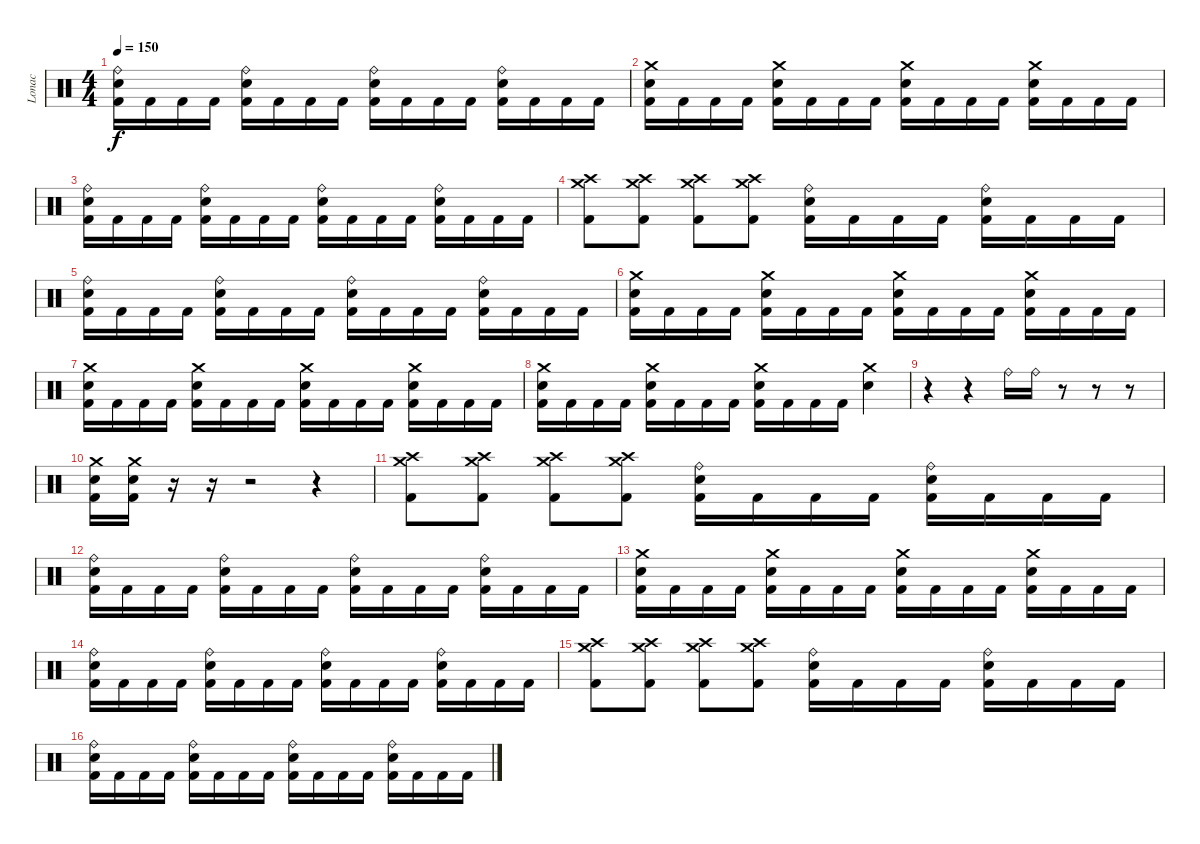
\track ("Lonac" "Lonac") {instrument percussion}
\staff {score}
\articulation defaults
\ts (4 4)
\tempo 150
\clef neutral
\ks c
("Kick (hit) 2" "Snare (hit) 2" "Ride (bell)").16{dy f} "Kick (hit) 2".16 "Kick (hit) 2".16 "Kick (hit) 2".16 ("Kick (hit) 2" "Snare (hit) 2" "Ride (bell)").16 "Kick (hit) 2".16 "Kick (hit) 2".16 "Kick (hit) 2".16 ("Kick (hit) 2" "Snare (hit) 2" "Ride (bell)").16 "Kick (hit) 2".16 "Kick (hit) 2".16 "Kick (hit) 2".16 ("Kick (hit) 2" "Snare (hit) 2" "Ride (bell)").16 "Kick (hit) 2".16 "Kick (hit) 2".16 "Kick (hit) 2".16 |
("Kick (hit) 2" "Snare (hit) 2" "Crash medium (hit)").16 "Kick (hit) 2".16 "Kick (hit) 2".16 "Kick (hit) 2".16 ("Kick (hit) 2" "Snare (hit) 2" "Crash medium (hit)").16 "Kick (hit) 2".16 "Kick (hit) 2".16 "Kick (hit) 2".16 ("Kick (hit) 2" "Snare (hit) 2" "Crash medium (hit)").16 "Kick (hit) 2".16 "Kick (hit) 2".16 "Kick (hit) 2".16 ("Kick (hit) 2" "Snare (hit) 2" "Crash medium (hit)").16 "Kick (hit) 2".16 "Kick (hit) 2".16 "Kick (hit) 2".16 |
("Kick (hit) 2" "Snare (hit) 2" "Ride (bell)").16 "Kick (hit) 2".16 "Kick (hit) 2".16 "Kick (hit) 2".16 ("Kick (hit) 2" "Snare (hit) 2" "Ride (bell)").16 "Kick (hit) 2".16 "Kick (hit) 2".16 "Kick (hit) 2".16 ("Kick (hit) 2" "Snare (hit) 2" "Ride (bell)").16 "Kick (hit) 2".16 "Kick (hit) 2".16 "Kick (hit) 2".16 ("Kick (hit) 2" "Snare (hit) 2" "Ride (bell)").16 "Kick (hit) 2".16 "Kick (hit) 2".16 "Kick (hit) 2".16 |
("Crash high (hit)" "Crash medium (hit)" "Kick (hit) 2").8 ("Crash high (hit)" "Crash medium (hit)" "Kick (hit) 2").8 ("Crash high (hit)" "Crash medium (hit)" "Kick (hit) 2").8 ("Crash high (hit)" "Crash medium (hit)" "Kick (hit) 2").8 ("Kick (hit) 2" "Snare (hit) 2" "Ride (bell)").16 "Kick (hit) 2".16 "Kick (hit) 2".16 "Kick (hit) 2".16 ("Kick (hit) 2" "Snare (hit) 2" "Ride (bell)").16 "Kick (hit) 2".16 "Kick (hit) 2".16 "Kick (hit) 2".16 |
("Kick (hit) 2" "Snare (hit) 2" "Ride (bell)").16 "Kick (hit) 2".16 "Kick (hit) 2".16 "Kick (hit) 2".16 ("Kick (hit) 2" "Snare (hit) 2" "Ride (bell)").16 "Kick (hit) 2".16 "Kick (hit) 2".16 "Kick (hit) 2".16 ("Kick (hit) 2" "Snare (hit) 2" "Ride (bell)").16 "Kick (hit) 2".16 "Kick (hit) 2".16 "Kick (hit) 2".16 ("Kick (hit) 2" "Snare (hit) 2" "Ride (bell)").16 "Kick (hit) 2".16 "Kick (hit) 2".16 "Kick (hit) 2".16 |
("Kick (hit) 2" "Snare (hit) 2" "Crash medium (hit)").16 "Kick (hit) 2".16 "Kick (hit) 2".16 "Kick (hit) 2".16 ("Kick (hit) 2" "Snare (hit) 2" "Crash medium (hit)").16 "Kick (hit) 2".16 "Kick (hit) 2".16 "Kick (hit) 2".16 ("Kick (hit) 2" "Snare (hit) 2" "Crash medium (hit)").16 "Kick (hit) 2".16 "Kick (hit) 2".16 "Kick (hit) 2".16 ("Kick (hit) 2" "Snare (hit) 2" "Crash medium (hit)").16 "Kick (hit) 2".16 "Kick (hit) 2".16 "Kick (hit) 2".16 |
("Kick (hit) 2" "Snare (hit) 2" "Crash medium (hit)").16 "Kick (hit) 2".16 "Kick (hit) 2".16 "Kick (hit) 2".16 ("Kick (hit) 2" "Snare (hit) 2" "Crash medium (hit)").16 "Kick (hit) 2".16 "Kick (hit) 2".16 "Kick (hit) 2".16 ("Kick (hit) 2" "Snare (hit) 2" "Crash medium (hit)").16 "Kick (hit) 2".16 "Kick (hit) 2".16 "Kick (hit) 2".16 ("Kick (hit) 2" "Snare (hit) 2" "Crash medium (hit)").16 "Kick (hit) 2".16 "Kick (hit) 2".16 "Kick (hit) 2".16 |
("Kick (hit) 2" "Snare (hit) 2" "Crash medium (hit)").16 "Kick (hit) 2".16 "Kick (hit) 2".16 "Kick (hit) 2".16 ("Kick (hit) 2" "Snare (hit) 2" "Crash medium (hit)").16 "Kick (hit) 2".16 "Kick (hit) 2".16 "Kick (hit) 2".16 ("Kick (hit) 2" "Snare (hit) 2" "Crash medium (hit)").16 "Kick (hit) 2".16 "Kick (hit) 2".16 "Kick (hit) 2".16 ("Snare (hit) 2" "Crash medium (hit)").4 |
r.4 r.4 "Ride (bell)".16 "Ride (bell)".16 r.8 r.8 r.8 |
("Kick (hit) 2" "Snare (hit) 2" "Crash medium (hit)").16 ("Kick (hit) 2" "Snare (hit) 2" "Crash medium (hit)").16 r.16 r.16 r.2 r.4 |
("Crash high (hit)" "Crash medium (hit)" "Kick (hit) 2").8 ("Crash high (hit)" "Crash medium (hit)" "Kick (hit) 2").8 ("Crash high (hit)" "Crash medium (hit)" "Kick (hit) 2").8 ("Crash high (hit)" "Crash medium (hit)" "Kick (hit) 2").8 ("Kick (hit) 2" "Snare (hit) 2" "Ride (bell)").16 "Kick (hit) 2".16 "Kick (hit) 2".16 "Kick (hit) 2".16 ("Kick (hit) 2" "Snare (hit) 2" "Ride (bell)").16 "Kick (hit) 2".16 "Kick (hit) 2".16 "Kick (hit) 2".16 |
("Kick (hit) 2" "Snare (hit) 2" "Ride (bell)").16 "Kick (hit) 2".16 "Kick (hit) 2".16 "Kick (hit) 2".16 ("Kick (hit) 2" "Snare (hit) 2" "Ride (bell)").16 "Kick (hit) 2".16 "Kick (hit) 2".16 "Kick (hit) 2".16 ("Kick (hit) 2" "Snare (hit) 2" "Ride (bell)").16 "Kick (hit) 2".16 "Kick (hit) 2".16 "Kick (hit) 2".16 ("Kick (hit) 2" "Snare (hit) 2" "Ride (bell)").16 "Kick (hit) 2".16 "Kick (hit) 2".16 "Kick (hit) 2".16 |
("Kick (hit) 2" "Snare (hit) 2" "Crash medium (hit)").16 "Kick (hit) 2".16 "Kick (hit) 2".16 "Kick (hit) 2".16 ("Kick (hit) 2" "Snare (hit) 2" "Crash medium (hit)").16 "Kick (hit) 2".16 "Kick (hit) 2".16 "Kick (hit) 2".16 ("Kick (hit) 2" "Snare (hit) 2" "Crash medium (hit)").16 "Kick (hit) 2".16 "Kick (hit) 2".16 "Kick (hit) 2".16 ("Kick (hit) 2" "Snare (hit) 2" "Crash medium (hit)").16 "Kick (hit) 2".16 "Kick (hit) 2".16 "Kick (hit) 2".16 |
("Kick (hit) 2" "Snare (hit) 2" "Ride (bell)").16 "Kick (hit) 2".16 "Kick (hit) 2".16 "Kick (hit) 2".16 ("Kick (hit) 2" "Snare (hit) 2" "Ride (bell)").16 "Kick (hit) 2".16 "Kick (hit) 2".16 "Kick (hit) 2".16 ("Kick (hit) 2" "Snare (hit) 2" "Ride (bell)").16 "Kick (hit) 2".16 "Kick (hit) 2".16 "Kick (hit) 2".16 ("Kick (hit) 2" "Snare (hit) 2" "Ride (bell)").16 "Kick (hit) 2".16 "Kick (hit) 2".16 "Kick (hit) 2".16 |
("Crash high (hit)" "Crash medium (hit)" "Kick (hit) 2").8 ("Crash high (hit)" "Crash medium (hit)" "Kick (hit) 2").8 ("Crash high (hit)" "Crash medium (hit)" "Kick (hit) 2").8 ("Crash high (hit)" "Crash medium (hit)" "Kick (hit) 2").8 ("Kick (hit) 2" "Snare (hit) 2" "Ride (bell)").16 "Kick (hit) 2".16 "Kick (hit) 2".16 "Kick (hit) 2".16 ("Kick (hit) 2" "Snare (hit) 2" "Ride (bell)").16 "Kick (hit) 2".16 "Kick (hit) 2".16 "Kick (hit) 2".16 |
("Kick (hit) 2" "Snare (hit) 2" "Ride (bell)").16 "Kick (hit) 2".16 "Kick (hit) 2".16 "Kick (hit) 2".16 ("Kick (hit) 2" "Snare (hit) 2" "Ride (bell)").16 "Kick (hit) 2".16 "Kick (hit) 2".16 "Kick (hit) 2".16 ("Kick (hit) 2" "Snare (hit) 2" "Ride (bell)").16 "Kick (hit) 2".16 "Kick (hit) 2".16 "Kick (hit) 2".16 ("Kick (hit) 2" "Snare (hit) 2" "Ride (bell)").16 "Kick (hit) 2".16 "Kick (hit) 2".16 "Kick (hit) 2".16
